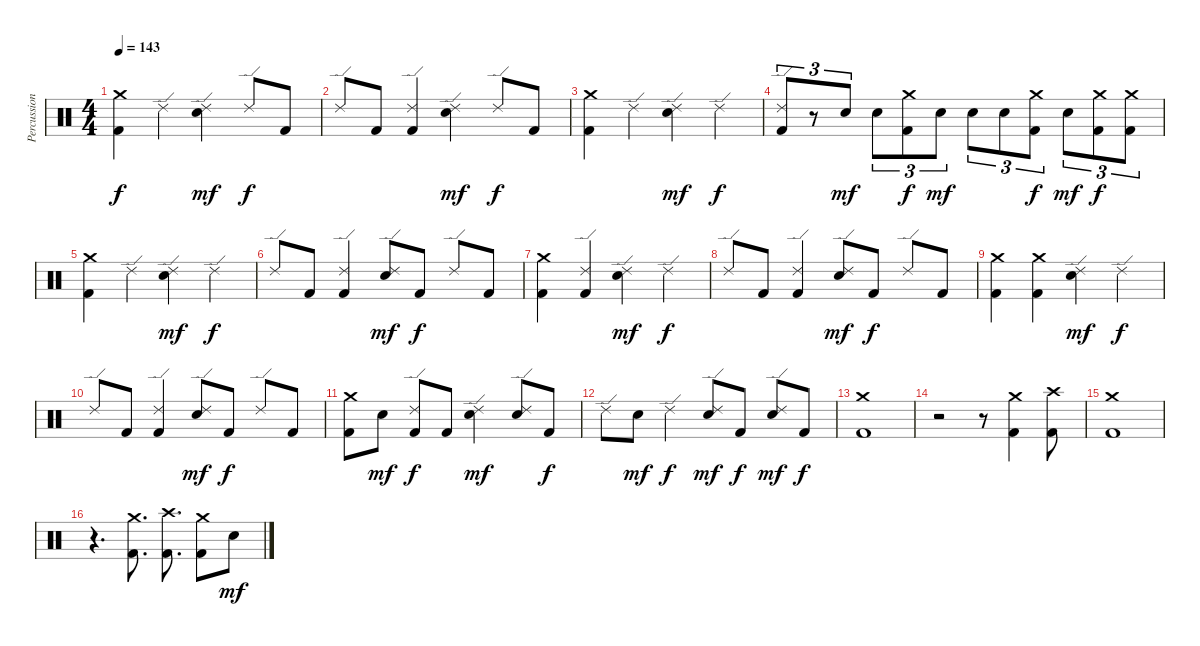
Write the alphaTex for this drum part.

\track ("Percussion" "Percussion") {instrument percussion}
\staff {score}
\articulation defaults
\ts (4 4)
\tempo 143
\clef neutral
\ks c
("Crash medium (hit)" "Kick (hit) 2").4{dy f} "Ride (edge) 2".4 ("Ride (edge) 2" "Electric Snare (hit)").4{dy mf} "Ride (edge) 2".8{dy f} "Kick (hit) 2".8 |
"Ride (edge) 2".8 "Kick (hit) 2".8 ("Ride (edge) 2" "Kick (hit) 2").4 ("Ride (edge) 2" "Electric Snare (hit)").4{dy mf} "Ride (edge) 2".8{dy f} "Kick (hit) 2".8 |
("Crash medium (hit)" "Kick (hit) 2").4 "Ride (edge) 2".4 ("Ride (edge) 2" "Electric Snare (hit)").4{dy mf} "Ride (edge) 2".4{dy f} |
("Ride (edge) 2" "Kick (hit) 2").8{tu (3 2)} r.8{tu (3 2)} "Electric Snare (hit)".8{tu (3 2) dy mf} "Electric Snare (hit)".8{tu (3 2)} ("Crash medium (hit)" "Kick (hit) 2").8{tu (3 2) dy f} "Electric Snare (hit)".8{tu (3 2) dy mf} "Electric Snare (hit)".8{tu (3 2)} "Electric Snare (hit)".8{tu (3 2)} ("Crash medium (hit)" "Kick (hit) 2").8{tu (3 2) dy f} "Electric Snare (hit)".8{tu (3 2) dy mf} ("Crash medium (hit)" "Kick (hit) 2").8{tu (3 2) dy f} ("Crash medium (hit)" "Kick (hit) 2").8{tu (3 2)} |
("Crash medium (hit)" "Kick (hit) 2").4 "Ride (edge) 2".4 ("Ride (edge) 2" "Electric Snare (hit)").4{dy mf} "Ride (edge) 2".4{dy f} |
"Ride (edge) 2".8 "Kick (hit) 2".8 ("Ride (edge) 2" "Kick (hit) 2").4 ("Ride (edge) 2" "Electric Snare (hit)").8{dy mf} "Kick (hit) 2".8{dy f} "Ride (edge) 2".8 "Kick (hit) 2".8 |
("Crash medium (hit)" "Kick (hit) 2").4 ("Ride (edge) 2" "Kick (hit) 2").4 ("Ride (edge) 2" "Electric Snare (hit)").4{dy mf} "Ride (edge) 2".4{dy f} |
"Ride (edge) 2".8 "Kick (hit) 2".8 ("Ride (edge) 2" "Kick (hit) 2").4 ("Ride (edge) 2" "Electric Snare (hit)").8{dy mf} "Kick (hit) 2".8{dy f} "Ride (edge) 2".8 "Kick (hit) 2".8 |
("Crash medium (hit)" "Kick (hit) 2").4 ("Crash medium (hit)" "Kick (hit) 2").4 ("Ride (edge) 2" "Electric Snare (hit)").4{dy mf} "Ride (edge) 2".4{dy f} |
"Ride (edge) 2".8 "Kick (hit) 2".8 ("Ride (edge) 2" "Kick (hit) 2").4 ("Ride (edge) 2" "Electric Snare (hit)").8{dy mf} "Kick (hit) 2".8{dy f} "Ride (edge) 2".8 "Kick (hit) 2".8 |
("Crash medium (hit)" "Kick (hit) 2").8 "Electric Snare (hit)".8{dy mf} ("Ride (edge) 2" "Kick (hit) 2").8{dy f} "Kick (hit) 2".8 ("Ride (edge) 2" "Electric Snare (hit)").4{dy mf} ("Ride (edge) 2" "Electric Snare (hit)").8 "Kick (hit) 2".8{dy f} |
"Ride (edge) 2".8 "Electric Snare (hit)".8{dy mf} "Ride (edge) 2".4{dy f} ("Ride (edge) 2" "Electric Snare (hit)").8{dy mf} "Kick (hit) 2".8{dy f} ("Ride (edge) 2" "Electric Snare (hit)").8{dy mf} "Kick (hit) 2".8{dy f} |
("Crash medium (hit)" "Kick (hit) 2").1 |
r.2 r.8 ("Crash medium (hit)" "Kick (hit) 2").4 ("Crash high (hit)" "Kick (hit) 2").8 |
("Crash medium (hit)" "Kick (hit) 2").1 |
r.4{d} ("Crash medium (hit)" "Kick (hit) 2").8{d} ("Crash high (hit)" "Kick (hit) 2").8{d} ("Crash medium (hit)" "Kick (hit) 2").8 "Electric Snare (hit)".8{dy mf}
